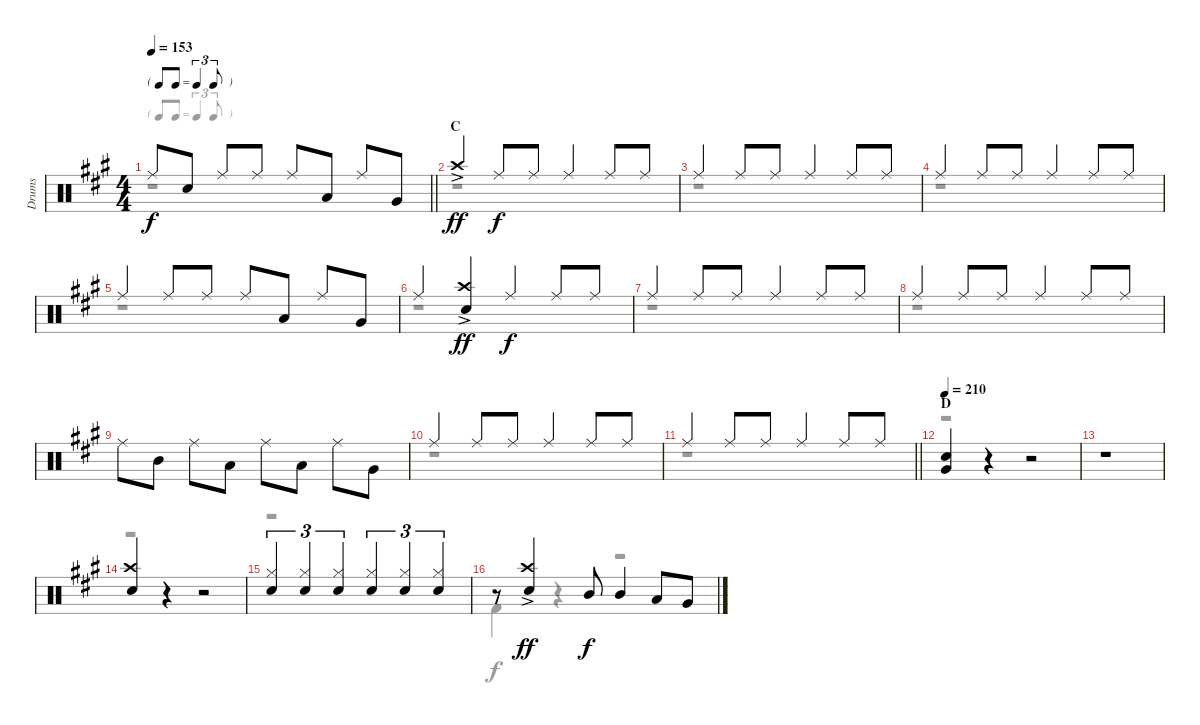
\track ("Drums" "Drums") {instrument percussion}
\staff {score}
\articulation defaults
\voice
\ts (4 4)
\tf triplet8th
\tempo 153
\clef neutral
\barLineRight lightlight
\ks a "Ride (middle)".8{dy f} "Snare (hit) 2".8 "Ride (middle)".8 "Ride (middle)".8 "Ride (middle)".8 "Low Tom (hit)".8 "Ride (middle)".8 "Very Low Tom (hit)".8
|
\section ("" "C")
"Crash high (hit)"{ac}.4{dy ff} "Ride (middle)".8{dy f} "Ride (middle)".8 "Ride (middle)".4 "Ride (middle)".8 "Ride (middle)".8 |
"Ride (middle)".4 "Ride (middle)".8 "Ride (middle)".8 "Ride (middle)".4 "Ride (middle)".8 "Ride (middle)".8 |
"Ride (middle)".4 "Ride (middle)".8 "Ride (middle)".8 "Ride (middle)".4 "Ride (middle)".8 "Ride (middle)".8 |
"Ride (middle)".4 "Ride (middle)".8 "Ride (middle)".8 "Ride (middle)".8 "Low Tom (hit)".8 "Ride (middle)".8 "Very Low Tom (hit)".8 |
"Ride (middle)".4 ("Crash high (hit)"{ac} "Snare (hit) 2").4{dy ff} "Ride (middle)".4{dy f} "Ride (middle)".8 "Ride (middle)".8 |
"Ride (middle)".4 "Ride (middle)".8 "Ride (middle)".8 "Ride (middle)".4 "Ride (middle)".8 "Ride (middle)".8 |
"Ride (middle)".4 "Ride (middle)".8 "Ride (middle)".8 "Ride (middle)".4 "Ride (middle)".8 "Ride (middle)".8 |
"Ride (middle)".8 "Mid Tom (hit)".8 "Ride (middle)".8 "Low Tom (hit)".8 "Ride (middle)".8 "Low Tom (hit)".8 "Ride (middle)".8 "Very Low Tom (hit)".8 |
"Ride (middle)".4 "Ride (middle)".8 "Ride (middle)".8 "Ride (middle)".4 "Ride (middle)".8 "Ride (middle)".8 |
\barLineRight lightlight "Ride (middle)".4 "Ride (middle)".8 "Ride (middle)".8 "Ride (middle)".4 "Ride (middle)".8 "Ride (middle)".8
|
\section ("" "D")
\tempo 210
("Snare (hit) 2" "Very Low Tom (hit)").4 r.4 r.2 |
r.1 |
("Crash high (hit)" "Snare (hit) 2").4 r.4 r.2 |
("Hi-Hat (closed)" "Snare (hit) 2").4{tu (3 2)} ("Hi-Hat (closed)" "Snare (hit) 2").4{tu (3 2)} ("Hi-Hat (closed)" "Snare (hit) 2").4{tu (3 2)} ("Hi-Hat (closed)" "Snare (hit) 2").4{tu (3 2)} ("Hi-Hat (closed)" "Snare (hit) 2").4{tu (3 2)} ("Hi-Hat (closed)" "Snare (hit) 2").4{tu (3 2)} |
r.8 ("Crash high (hit)"{ac} "Snare (hit) 2").4{dy ff} "Mid Tom (hit)".8{dy f} "Mid Tom (hit)".4 "Low Tom (hit)".8 "Very Low Tom (hit)".8
\voice
\clef neutral
\ottava regular
\simile none
\barLineRight lightlight
\ks a
r.1{dy f} |
r.1 |
r.1 |
r.1 |
r.1 |
r.1 |
r.1 |
r.1 |
|
r.1 |
\barLineRight lightlight
r.1 |
r.1 |
r.1 |
r.1 |
r.1 |
"Kick (hit) 2".4 r.4 r.2
